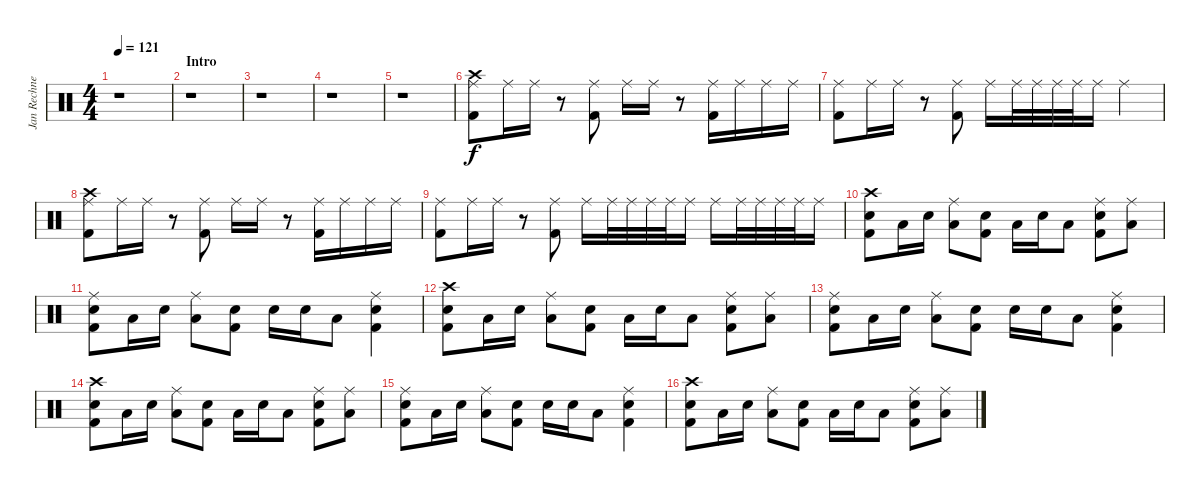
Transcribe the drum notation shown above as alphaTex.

\track ("Jan Rechnerger" "Jan Rechne") {instrument percussion}
\staff {score}
\articulation defaults
\ts (4 4)
\tempo 121
\clef neutral
\ks c
r.1{dy f} |
\section ("" "Intro")
r.1 |
r.1 |
r.1 |
r.1 |
("Crash high (hit)" "Ride (middle)" "Kick (hit) 2").8 "Ride (middle)".16 "Ride (middle)".16 r.8 ("Ride (middle)" "Kick (hit) 2").8 "Ride (middle)".16 "Ride (middle)".16 r.8 ("Ride (middle)" "Kick (hit) 2").16 "Ride (middle)".16 "Ride (middle)".16 "Ride (middle)".16 |
("Ride (middle)" "Kick (hit) 2").8 "Ride (middle)".16 "Ride (middle)".16 r.8 ("Ride (middle)" "Kick (hit) 2").8 "Ride (middle)".16 "Ride (middle)".32 "Ride (middle)".32 "Ride (middle)".32 "Ride (middle)".32 "Ride (middle)".16 "Ride (middle)".4 |
("Crash high (hit)" "Ride (middle)" "Kick (hit) 2").8 "Ride (middle)".16 "Ride (middle)".16 r.8 ("Ride (middle)" "Kick (hit) 2").8 "Ride (middle)".16 "Ride (middle)".16 r.8 ("Ride (middle)" "Kick (hit) 2").16 "Ride (middle)".16 "Ride (middle)".16 "Ride (middle)".16 |
("Ride (middle)" "Kick (hit) 2").8 "Ride (middle)".16 "Ride (middle)".16 r.8 ("Ride (middle)" "Kick (hit) 2").8 "Ride (middle)".16 "Ride (middle)".32 "Ride (middle)".32 "Ride (middle)".32 "Ride (middle)".32 "Ride (middle)".16 "Ride (middle)".16 "Ride (middle)".32 "Ride (middle)".32 "Ride (middle)".32 "Ride (middle)".32 "Ride (middle)".16 |
("Crash high (hit)" "Snare (hit) 2" "Kick (hit) 2").8 "Low Tom (hit)".16 "Snare (hit) 2".16 ("Ride (middle)" "Low Tom (hit)").8 ("Snare (hit) 2" "Kick (hit) 2").8 "Low Tom (hit)".16 "Snare (hit) 2".16 "Low Tom (hit)".8 ("Ride (middle)" "Snare (hit) 2" "Kick (hit) 2").8 ("Ride (middle)" "Low Tom (hit)").8 |
("Ride (middle)" "Snare (hit) 2" "Kick (hit) 2").8 "Low Tom (hit)".16 "Snare (hit) 2".16 ("Ride (middle)" "Low Tom (hit)").8 ("Snare (hit) 2" "Kick (hit) 2").8 "Snare (hit) 2".16 "Snare (hit) 2".16 "Low Tom (hit)".8 ("Ride (middle)" "Snare (hit) 2" "Kick (hit) 2").4 |
("Crash high (hit)" "Snare (hit) 2" "Kick (hit) 2").8 "Low Tom (hit)".16 "Snare (hit) 2".16 ("Ride (middle)" "Low Tom (hit)").8 ("Snare (hit) 2" "Kick (hit) 2").8 "Low Tom (hit)".16 "Snare (hit) 2".16 "Low Tom (hit)".8 ("Ride (middle)" "Snare (hit) 2" "Kick (hit) 2").8 ("Ride (middle)" "Low Tom (hit)").8 |
("Ride (middle)" "Snare (hit) 2" "Kick (hit) 2").8 "Low Tom (hit)".16 "Snare (hit) 2".16 ("Ride (middle)" "Low Tom (hit)").8 ("Snare (hit) 2" "Kick (hit) 2").8 "Snare (hit) 2".16 "Snare (hit) 2".16 "Low Tom (hit)".8 ("Ride (middle)" "Snare (hit) 2" "Kick (hit) 2").4 |
("Crash high (hit)" "Snare (hit) 2" "Kick (hit) 2").8 "Low Tom (hit)".16 "Snare (hit) 2".16 ("Ride (middle)" "Low Tom (hit)").8 ("Snare (hit) 2" "Kick (hit) 2").8 "Low Tom (hit)".16 "Snare (hit) 2".16 "Low Tom (hit)".8 ("Ride (middle)" "Snare (hit) 2" "Kick (hit) 2").8 ("Ride (middle)" "Low Tom (hit)").8 |
("Ride (middle)" "Snare (hit) 2" "Kick (hit) 2").8 "Low Tom (hit)".16 "Snare (hit) 2".16 ("Ride (middle)" "Low Tom (hit)").8 ("Snare (hit) 2" "Kick (hit) 2").8 "Snare (hit) 2".16 "Snare (hit) 2".16 "Low Tom (hit)".8 ("Ride (middle)" "Snare (hit) 2" "Kick (hit) 2").4 |
("Crash high (hit)" "Snare (hit) 2" "Kick (hit) 2").8 "Low Tom (hit)".16 "Snare (hit) 2".16 ("Ride (middle)" "Low Tom (hit)").8 ("Snare (hit) 2" "Kick (hit) 2").8 "Low Tom (hit)".16 "Snare (hit) 2".16 "Low Tom (hit)".8 ("Ride (middle)" "Snare (hit) 2" "Kick (hit) 2").8 ("Ride (middle)" "Low Tom (hit)").8
